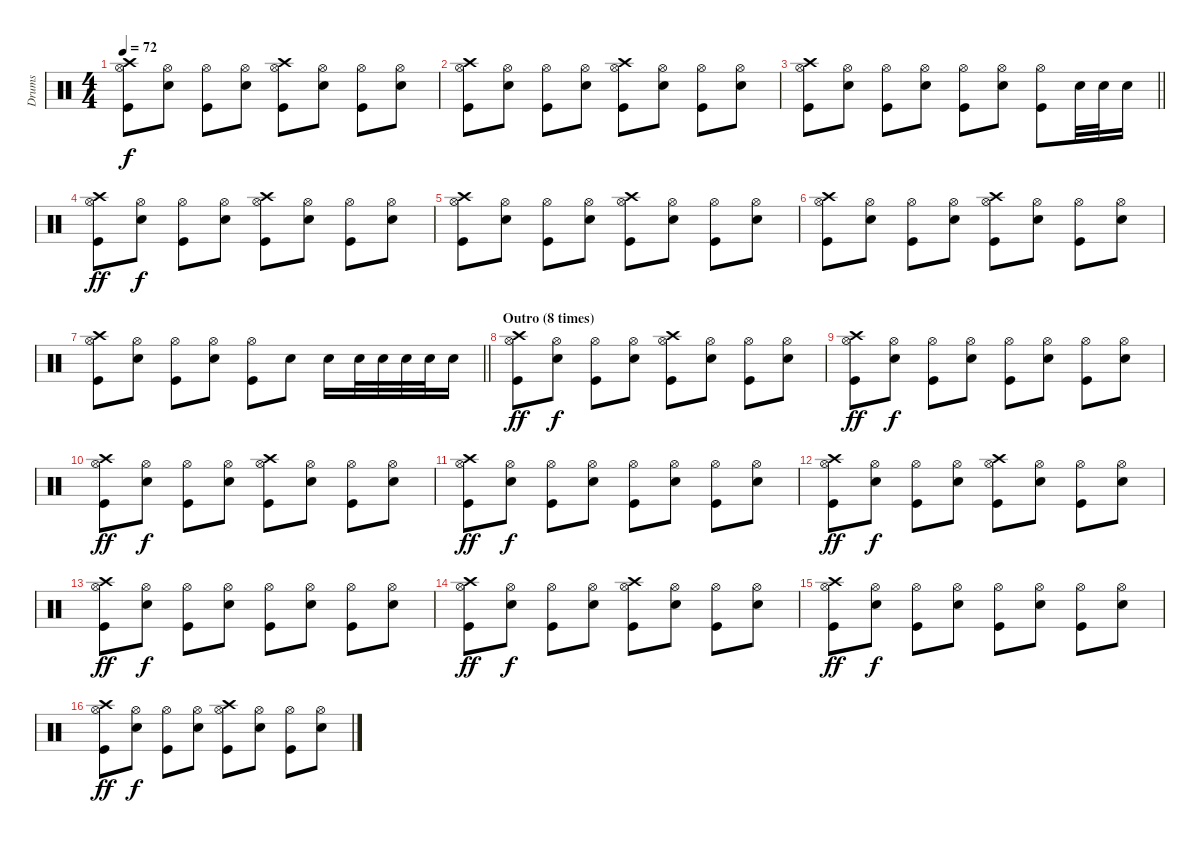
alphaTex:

\track ("Drums" "Drums") {instrument percussion}
\staff {score}
\articulation defaults
\ts (4 4)
\tempo 72
\clef neutral
\ks c
("Crash high (hit)" "Hi-Hat (open)" "Kick (hit)").8{dy f} ("Electric Snare (hit)" "Hi-Hat (open)").8 ("Hi-Hat (open)" "Kick (hit)").8 ("Electric Snare (hit)" "Hi-Hat (open)").8 ("Crash high (hit)" "Hi-Hat (open)" "Kick (hit)").8 ("Electric Snare (hit)" "Hi-Hat (open)").8 ("Hi-Hat (open)" "Kick (hit)").8 ("Electric Snare (hit)" "Hi-Hat (open)").8 |
("Crash high (hit)" "Hi-Hat (open)" "Kick (hit)").8 ("Electric Snare (hit)" "Hi-Hat (open)").8 ("Hi-Hat (open)" "Kick (hit)").8 ("Electric Snare (hit)" "Hi-Hat (open)").8 ("Crash high (hit)" "Hi-Hat (open)" "Kick (hit)").8 ("Electric Snare (hit)" "Hi-Hat (open)").8 ("Hi-Hat (open)" "Kick (hit)").8 ("Electric Snare (hit)" "Hi-Hat (open)").8 |
\barLineRight lightlight
("Crash high (hit)" "Hi-Hat (open)" "Kick (hit)").8 ("Electric Snare (hit)" "Hi-Hat (open)").8 ("Hi-Hat (open)" "Kick (hit)").8 ("Electric Snare (hit)" "Hi-Hat (open)").8 ("Hi-Hat (open)" "Kick (hit)").8 ("Electric Snare (hit)" "Hi-Hat (open)").8 ("Hi-Hat (open)" "Kick (hit)").8 "Electric Snare (hit)".32 "Electric Snare (hit)".32 "Electric Snare (hit)".16 |
("Crash high (hit)" "Hi-Hat (open)" "Kick (hit)").8{dy ff} ("Electric Snare (hit)" "Hi-Hat (open)").8{dy f} ("Hi-Hat (open)" "Kick (hit)").8 ("Electric Snare (hit)" "Hi-Hat (open)").8 ("Crash high (hit)" "Hi-Hat (open)" "Kick (hit)").8 ("Electric Snare (hit)" "Hi-Hat (open)").8 ("Hi-Hat (open)" "Kick (hit)").8 ("Electric Snare (hit)" "Hi-Hat (open)").8 |
("Crash high (hit)" "Hi-Hat (open)" "Kick (hit)").8 ("Electric Snare (hit)" "Hi-Hat (open)").8 ("Hi-Hat (open)" "Kick (hit)").8 ("Electric Snare (hit)" "Hi-Hat (open)").8 ("Crash high (hit)" "Hi-Hat (open)" "Kick (hit)").8 ("Electric Snare (hit)" "Hi-Hat (open)").8 ("Hi-Hat (open)" "Kick (hit)").8 ("Electric Snare (hit)" "Hi-Hat (open)").8 |
("Crash high (hit)" "Hi-Hat (open)" "Kick (hit)").8 ("Electric Snare (hit)" "Hi-Hat (open)").8 ("Hi-Hat (open)" "Kick (hit)").8 ("Electric Snare (hit)" "Hi-Hat (open)").8 ("Crash high (hit)" "Hi-Hat (open)" "Kick (hit)").8 ("Electric Snare (hit)" "Hi-Hat (open)").8 ("Hi-Hat (open)" "Kick (hit)").8 ("Electric Snare (hit)" "Hi-Hat (open)").8 |
\barLineRight lightlight
("Crash high (hit)" "Hi-Hat (open)" "Kick (hit)").8 ("Electric Snare (hit)" "Hi-Hat (open)").8 ("Hi-Hat (open)" "Kick (hit)").8 ("Electric Snare (hit)" "Hi-Hat (open)").8 ("Hi-Hat (open)" "Kick (hit)").8 "Electric Snare (hit)".8 "Electric Snare (hit)".16 "Electric Snare (hit)".32 "Electric Snare (hit)".32 "Electric Snare (hit)".32 "Electric Snare (hit)".32 "Electric Snare (hit)".16 |
\section ("" "Outro (8 times)")
("Crash high (hit)" "Hi-Hat (open)" "Kick (hit)").8{dy ff} ("Electric Snare (hit)" "Hi-Hat (open)").8{dy f} ("Hi-Hat (open)" "Kick (hit)").8 ("Electric Snare (hit)" "Hi-Hat (open)").8 ("Crash high (hit)" "Hi-Hat (open)" "Kick (hit)").8 ("Electric Snare (hit)" "Hi-Hat (open)").8 ("Hi-Hat (open)" "Kick (hit)").8 ("Electric Snare (hit)" "Hi-Hat (open)").8 |
("Crash high (hit)" "Hi-Hat (open)" "Kick (hit)").8{dy ff} ("Electric Snare (hit)" "Hi-Hat (open)").8{dy f} ("Hi-Hat (open)" "Kick (hit)").8 ("Electric Snare (hit)" "Hi-Hat (open)").8 ("Hi-Hat (open)" "Kick (hit)").8 ("Electric Snare (hit)" "Hi-Hat (open)").8 ("Hi-Hat (open)" "Kick (hit)").8 ("Electric Snare (hit)" "Hi-Hat (open)").8 |
("Crash high (hit)" "Hi-Hat (open)" "Kick (hit)").8{dy ff} ("Electric Snare (hit)" "Hi-Hat (open)").8{dy f} ("Hi-Hat (open)" "Kick (hit)").8 ("Electric Snare (hit)" "Hi-Hat (open)").8 ("Crash high (hit)" "Hi-Hat (open)" "Kick (hit)").8 ("Electric Snare (hit)" "Hi-Hat (open)").8 ("Hi-Hat (open)" "Kick (hit)").8 ("Electric Snare (hit)" "Hi-Hat (open)").8 |
("Crash high (hit)" "Hi-Hat (open)" "Kick (hit)").8{dy ff} ("Electric Snare (hit)" "Hi-Hat (open)").8{dy f} ("Hi-Hat (open)" "Kick (hit)").8 ("Electric Snare (hit)" "Hi-Hat (open)").8 ("Hi-Hat (open)" "Kick (hit)").8 ("Electric Snare (hit)" "Hi-Hat (open)").8 ("Hi-Hat (open)" "Kick (hit)").8 ("Electric Snare (hit)" "Hi-Hat (open)").8 |
("Crash high (hit)" "Hi-Hat (open)" "Kick (hit)").8{dy ff} ("Electric Snare (hit)" "Hi-Hat (open)").8{dy f} ("Hi-Hat (open)" "Kick (hit)").8 ("Electric Snare (hit)" "Hi-Hat (open)").8 ("Crash high (hit)" "Hi-Hat (open)" "Kick (hit)").8 ("Electric Snare (hit)" "Hi-Hat (open)").8 ("Hi-Hat (open)" "Kick (hit)").8 ("Electric Snare (hit)" "Hi-Hat (open)").8 |
("Crash high (hit)" "Hi-Hat (open)" "Kick (hit)").8{dy ff} ("Electric Snare (hit)" "Hi-Hat (open)").8{dy f} ("Hi-Hat (open)" "Kick (hit)").8 ("Electric Snare (hit)" "Hi-Hat (open)").8 ("Hi-Hat (open)" "Kick (hit)").8 ("Electric Snare (hit)" "Hi-Hat (open)").8 ("Hi-Hat (open)" "Kick (hit)").8 ("Electric Snare (hit)" "Hi-Hat (open)").8 |
("Crash high (hit)" "Hi-Hat (open)" "Kick (hit)").8{dy ff} ("Electric Snare (hit)" "Hi-Hat (open)").8{dy f} ("Hi-Hat (open)" "Kick (hit)").8 ("Electric Snare (hit)" "Hi-Hat (open)").8 ("Crash high (hit)" "Hi-Hat (open)" "Kick (hit)").8 ("Electric Snare (hit)" "Hi-Hat (open)").8 ("Hi-Hat (open)" "Kick (hit)").8 ("Electric Snare (hit)" "Hi-Hat (open)").8 |
("Crash high (hit)" "Hi-Hat (open)" "Kick (hit)").8{dy ff} ("Electric Snare (hit)" "Hi-Hat (open)").8{dy f} ("Hi-Hat (open)" "Kick (hit)").8 ("Electric Snare (hit)" "Hi-Hat (open)").8 ("Hi-Hat (open)" "Kick (hit)").8 ("Electric Snare (hit)" "Hi-Hat (open)").8 ("Hi-Hat (open)" "Kick (hit)").8 ("Electric Snare (hit)" "Hi-Hat (open)").8 |
("Crash high (hit)" "Hi-Hat (open)" "Kick (hit)").8{dy ff} ("Electric Snare (hit)" "Hi-Hat (open)").8{dy f} ("Hi-Hat (open)" "Kick (hit)").8 ("Electric Snare (hit)" "Hi-Hat (open)").8 ("Crash high (hit)" "Hi-Hat (open)" "Kick (hit)").8 ("Electric Snare (hit)" "Hi-Hat (open)").8 ("Hi-Hat (open)" "Kick (hit)").8 ("Electric Snare (hit)" "Hi-Hat (open)").8
